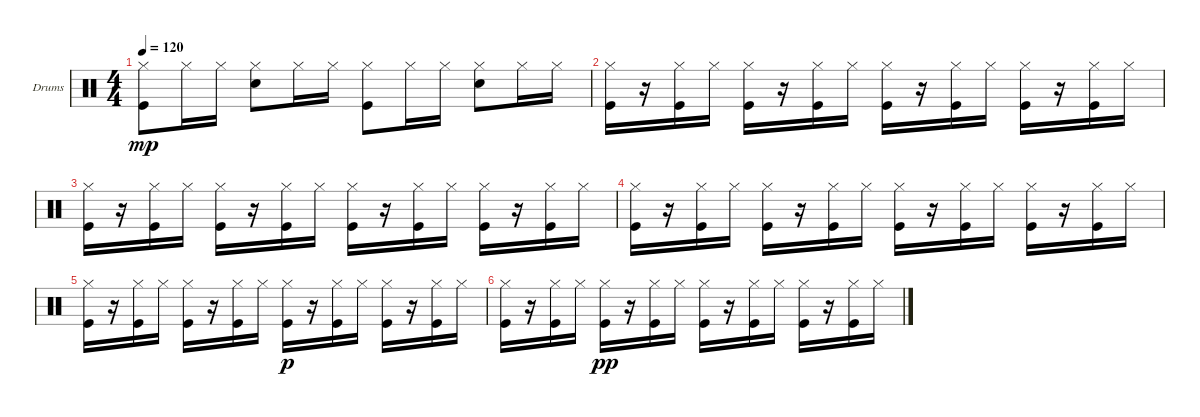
\bracketExtendMode groupsimilarinstruments
\firstSystemTrackNameOrientation horizontal
\otherSystemsTrackNameOrientation horizontal
\track ("Drumkit" "Drums") {instrument percussion}
\staff {score}
\articulation defaults
\ts (4 4)
\tempo 120
\clef neutral
\ks c
("Kick (hit)" "Hi-Hat (closed)").8{dy mp} "Hi-Hat (closed)".16 "Hi-Hat (closed)".16 ("Snare (hit) 2" "Hi-Hat (closed)").8 "Hi-Hat (closed)".16 "Hi-Hat (closed)".16 ("Kick (hit)" "Hi-Hat (closed)").8 "Hi-Hat (closed)".16 "Hi-Hat (closed)".16 ("Snare (hit) 2" "Hi-Hat (closed)").8 "Hi-Hat (closed)".16 "Hi-Hat (closed)".16 |
("Kick (hit)" "Hi-Hat (closed)").16 r.16 ("Kick (hit)" "Hi-Hat (closed)").16 "Hi-Hat (closed)".16 ("Kick (hit)" "Hi-Hat (closed)").16 r.16 ("Kick (hit)" "Hi-Hat (closed)").16 "Hi-Hat (closed)".16 ("Kick (hit)" "Hi-Hat (closed)").16 r.16 ("Kick (hit)" "Hi-Hat (closed)").16 "Hi-Hat (closed)".16 ("Kick (hit)" "Hi-Hat (closed)").16 r.16 ("Kick (hit)" "Hi-Hat (closed)").16 "Hi-Hat (closed)".16 |
("Kick (hit)" "Hi-Hat (closed)").16 r.16 ("Kick (hit)" "Hi-Hat (closed)").16 "Hi-Hat (closed)".16 ("Kick (hit)" "Hi-Hat (closed)").16 r.16 ("Kick (hit)" "Hi-Hat (closed)").16 "Hi-Hat (closed)".16 ("Kick (hit)" "Hi-Hat (closed)").16 r.16 ("Kick (hit)" "Hi-Hat (closed)").16 "Hi-Hat (closed)".16 ("Kick (hit)" "Hi-Hat (closed)").16 r.16 ("Kick (hit)" "Hi-Hat (closed)").16 "Hi-Hat (closed)".16 |
("Kick (hit)" "Hi-Hat (closed)").16 r.16 ("Kick (hit)" "Hi-Hat (closed)").16 "Hi-Hat (closed)".16 ("Kick (hit)" "Hi-Hat (closed)").16 r.16 ("Kick (hit)" "Hi-Hat (closed)").16 "Hi-Hat (closed)".16 ("Kick (hit)" "Hi-Hat (closed)").16 r.16 ("Kick (hit)" "Hi-Hat (closed)").16 "Hi-Hat (closed)".16 ("Kick (hit)" "Hi-Hat (closed)").16 r.16 ("Kick (hit)" "Hi-Hat (closed)").16 "Hi-Hat (closed)".16 |
("Kick (hit)" "Hi-Hat (closed)").16 r.16 ("Kick (hit)" "Hi-Hat (closed)").16 "Hi-Hat (closed)".16 ("Kick (hit)" "Hi-Hat (closed)").16 r.16 ("Kick (hit)" "Hi-Hat (closed)").16 "Hi-Hat (closed)".16 ("Kick (hit)" "Hi-Hat (closed)").16{dy p} r.16 ("Kick (hit)" "Hi-Hat (closed)").16 "Hi-Hat (closed)".16 ("Kick (hit)" "Hi-Hat (closed)").16 r.16 ("Kick (hit)" "Hi-Hat (closed)").16 "Hi-Hat (closed)".16 |
("Kick (hit)" "Hi-Hat (closed)").16 r.16 ("Kick (hit)" "Hi-Hat (closed)").16 "Hi-Hat (closed)".16 ("Kick (hit)" "Hi-Hat (closed)").16{dy pp} r.16 ("Kick (hit)" "Hi-Hat (closed)").16 "Hi-Hat (closed)".16 ("Kick (hit)" "Hi-Hat (closed)").16 r.16 ("Kick (hit)" "Hi-Hat (closed)").16 "Hi-Hat (closed)".16 ("Kick (hit)" "Hi-Hat (closed)").16 r.16 ("Kick (hit)" "Hi-Hat (closed)").16 "Hi-Hat (closed)".16
